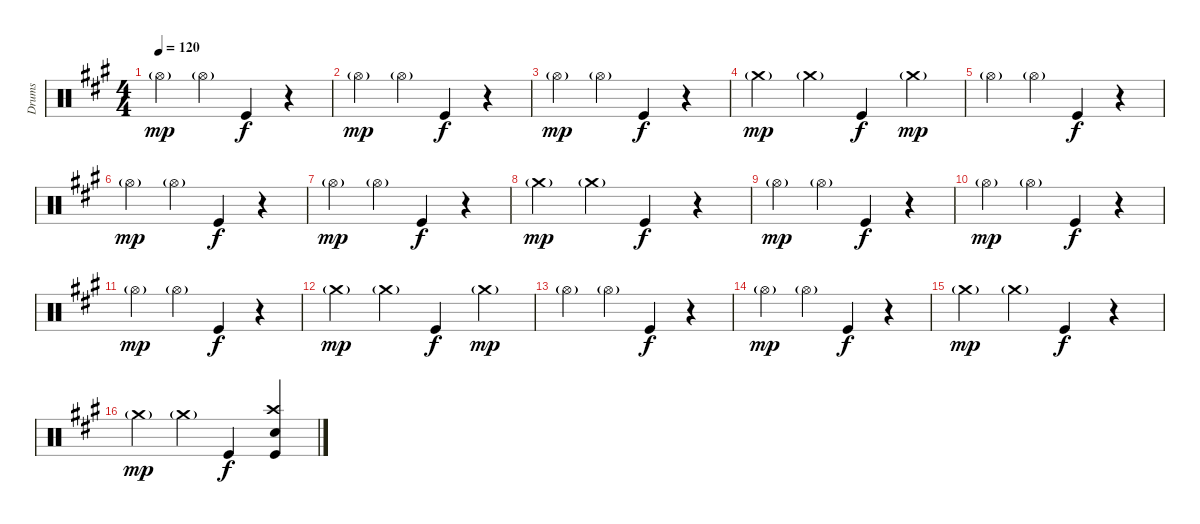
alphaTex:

\track ("Drums" "Drums") {instrument percussion}
\staff {score}
\articulation defaults
\ts (4 4)
\tempo 120
\clef neutral
\ks a "Hi-Hat (open)"{g}.4{dy mp} "Hi-Hat (open)"{g}.4 "Kick (hit)".4{dy f}
r.4 |
"Hi-Hat (open)"{g}.4{dy mp} "Hi-Hat (open)"{g}.4 "Kick (hit)".4{dy f} r.4 |
"Hi-Hat (open)"{g}.4{dy mp} "Hi-Hat (open)"{g}.4 "Kick (hit)".4{dy f} r.4 |
"Crash medium (hit)"{g}.4{dy mp} "Crash medium (hit)"{g}.4 "Kick (hit)".4{dy f} "Crash medium (hit)"{g}.4{dy mp} |
"Hi-Hat (open)"{g}.4 "Hi-Hat (open)"{g}.4 "Kick (hit)".4{dy f} r.4 |
"Hi-Hat (open)"{g}.4{dy mp} "Hi-Hat (open)"{g}.4 "Kick (hit)".4{dy f} r.4 |
"Hi-Hat (open)"{g}.4{dy mp} "Hi-Hat (open)"{g}.4 "Kick (hit)".4{dy f} r.4 |
"Crash medium (hit)"{g}.4{dy mp} "Crash medium (hit)"{g}.4 "Kick (hit)".4{dy f} r.4 |
"Hi-Hat (open)"{g}.4{dy mp} "Hi-Hat (open)"{g}.4 "Kick (hit)".4{dy f} r.4 |
"Hi-Hat (open)"{g}.4{dy mp} "Hi-Hat (open)"{g}.4 "Kick (hit)".4{dy f} r.4 |
"Hi-Hat (open)"{g}.4{dy mp} "Hi-Hat (open)"{g}.4 "Kick (hit)".4{dy f} r.4 |
"Crash medium (hit)"{g}.4{dy mp} "Crash medium (hit)"{g}.4 "Kick (hit)".4{dy f} "Crash medium (hit)"{g}.4{dy mp} |
"Hi-Hat (open)"{g}.4 "Hi-Hat (open)"{g}.4 "Kick (hit)".4{dy f} r.4 |
"Hi-Hat (open)"{g}.4{dy mp} "Hi-Hat (open)"{g}.4 "Kick (hit)".4{dy f} r.4 |
"Crash medium (hit)"{g}.4{dy mp} "Crash medium (hit)"{g}.4 "Kick (hit)".4{dy f} r.4 |
"Crash medium (hit)"{g}.4{dy mp} "Crash medium (hit)"{g}.4 "Kick (hit)".4{dy f} ("Crash high (hit)" "Snare (hit) 2" "Kick (hit)").4
